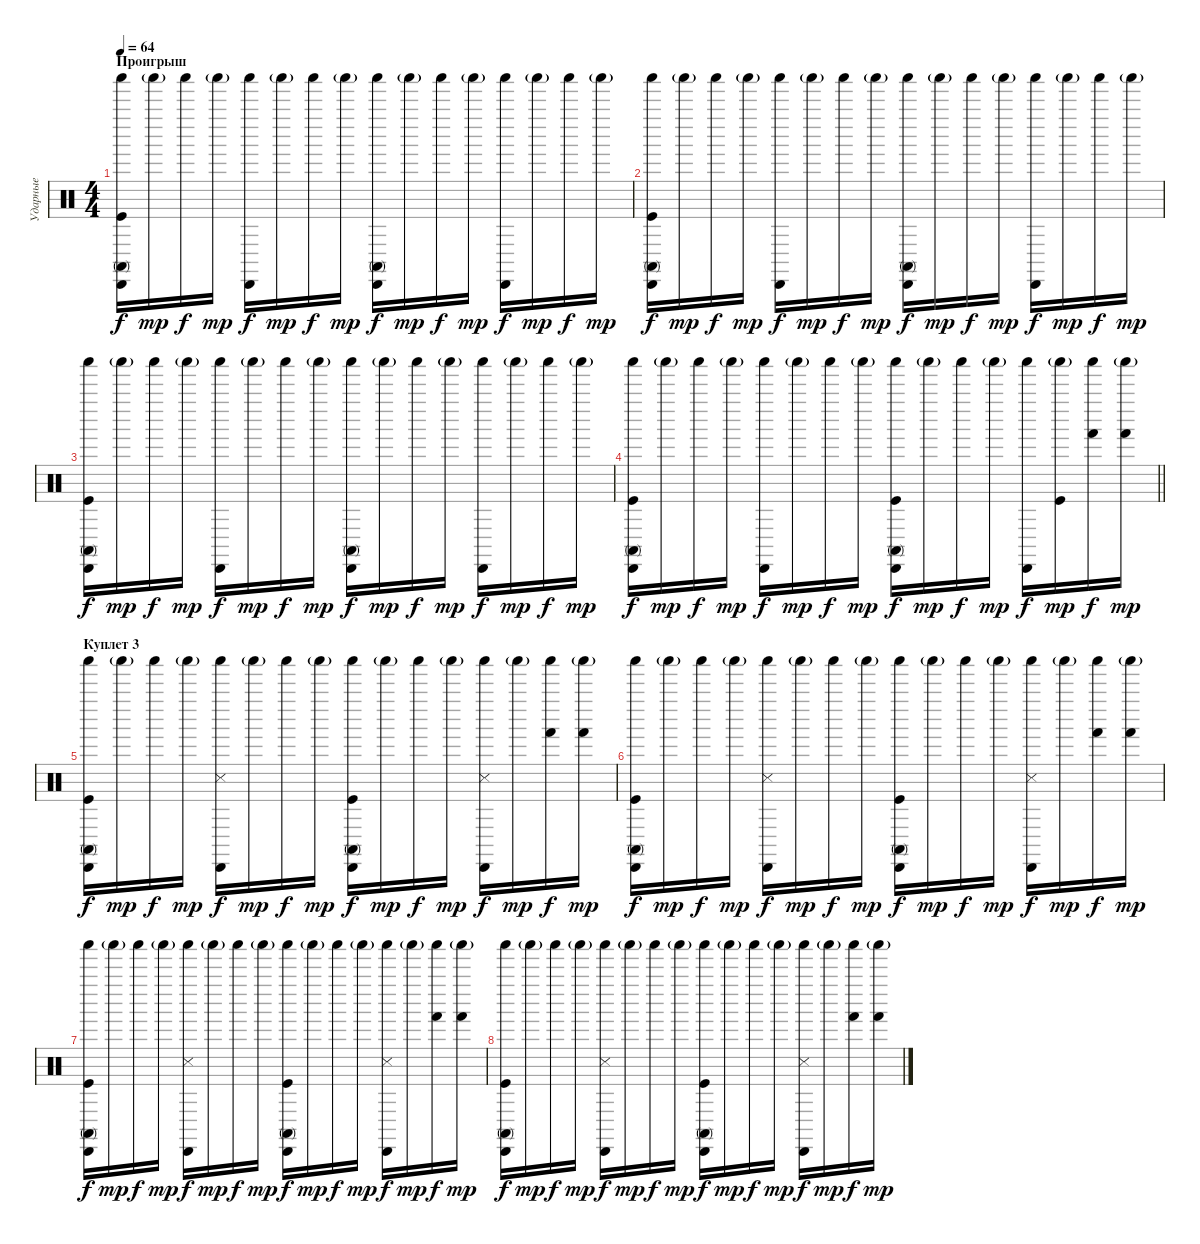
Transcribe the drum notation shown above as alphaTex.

\track ("Ударные" "Ударные") {instrument percussion}
\staff {score}
\articulation defaults
\ts (4 4)
\section ("" "Проигрыш")
\tempo 64
\clef neutral
\ks c
("Kick (hit)" "Conga high (mute)" "Cabasa (hit)" "Shaker (hit)").16{dy f} "Shaker (hit)"{g}.16{dy mp} "Shaker (hit)".16{dy f} "Shaker (hit)"{g}.16{dy mp} ("Cabasa (hit)" "Shaker (hit)").16{dy f} "Shaker (hit)"{g}.16{dy mp} "Shaker (hit)".16{dy f} "Shaker (hit)"{g}.16{dy mp} ("Conga high (mute)" "Cabasa (hit)" "Shaker (hit)").16{dy f} "Shaker (hit)"{g}.16{dy mp} "Shaker (hit)".16{dy f} "Shaker (hit)"{g}.16{dy mp} ("Cabasa (hit)" "Shaker (hit)").16{dy f} "Shaker (hit)"{g}.16{dy mp} "Shaker (hit)".16{dy f} "Shaker (hit)"{g}.16{dy mp} |
("Kick (hit)" "Conga high (mute)" "Cabasa (hit)" "Shaker (hit)").16{dy f} "Shaker (hit)"{g}.16{dy mp} "Shaker (hit)".16{dy f} "Shaker (hit)"{g}.16{dy mp} ("Cabasa (hit)" "Shaker (hit)").16{dy f} "Shaker (hit)"{g}.16{dy mp} "Shaker (hit)".16{dy f} "Shaker (hit)"{g}.16{dy mp} ("Conga high (mute)" "Cabasa (hit)" "Shaker (hit)").16{dy f} "Shaker (hit)"{g}.16{dy mp} "Shaker (hit)".16{dy f} "Shaker (hit)"{g}.16{dy mp} ("Cabasa (hit)" "Shaker (hit)").16{dy f} "Shaker (hit)"{g}.16{dy mp} "Shaker (hit)".16{dy f} "Shaker (hit)"{g}.16{dy mp} |
("Kick (hit)" "Conga high (mute)" "Cabasa (hit)" "Shaker (hit)").16{dy f} "Shaker (hit)"{g}.16{dy mp} "Shaker (hit)".16{dy f} "Shaker (hit)"{g}.16{dy mp} ("Cabasa (hit)" "Shaker (hit)").16{dy f} "Shaker (hit)"{g}.16{dy mp} "Shaker (hit)".16{dy f} "Shaker (hit)"{g}.16{dy mp} ("Conga high (mute)" "Cabasa (hit)" "Shaker (hit)").16{dy f} "Shaker (hit)"{g}.16{dy mp} "Shaker (hit)".16{dy f} "Shaker (hit)"{g}.16{dy mp} ("Cabasa (hit)" "Shaker (hit)").16{dy f} "Shaker (hit)"{g}.16{dy mp} "Shaker (hit)".16{dy f} "Shaker (hit)"{g}.16{dy mp} |
\barLineRight lightlight
("Kick (hit)" "Conga high (mute)" "Cabasa (hit)" "Shaker (hit)").16{dy f} "Shaker (hit)"{g}.16{dy mp} "Shaker (hit)".16{dy f} "Shaker (hit)"{g}.16{dy mp} ("Cabasa (hit)" "Shaker (hit)").16{dy f} "Shaker (hit)"{g}.16{dy mp} "Shaker (hit)".16{dy f} "Shaker (hit)"{g}.16{dy mp} ("Kick (hit)" "Conga high (mute)" "Cabasa (hit)" "Shaker (hit)").16{dy f} "Shaker (hit)"{g}.16{dy mp} "Shaker (hit)".16{dy f} "Shaker (hit)"{g}.16{dy mp} ("Cabasa (hit)" "Shaker (hit)").16{dy f} ("Kick (hit)" "Shaker (hit)"{g}).16{dy mp} ("Hand (hit)" "Shaker (hit)").16{dy f} ("Hand (hit)" "Shaker (hit)"{g}).16{dy mp} |
\section ("" "Куплет 3")
("Kick (hit)" "Conga high (mute)" "Cabasa (hit)" "Shaker (hit)").16{dy f} "Shaker (hit)"{g}.16{dy mp} "Shaker (hit)".16{dy f} "Shaker (hit)"{g}.16{dy mp} ("Snare (side stick) 3" "Cabasa (hit)" "Shaker (hit)").16{dy f} "Shaker (hit)"{g}.16{dy mp} "Shaker (hit)".16{dy f} "Shaker (hit)"{g}.16{dy mp} ("Kick (hit)" "Conga high (mute)" "Cabasa (hit)" "Shaker (hit)").16{dy f} "Shaker (hit)"{g}.16{dy mp} "Shaker (hit)".16{dy f} "Shaker (hit)"{g}.16{dy mp} ("Snare (side stick) 3" "Cabasa (hit)" "Shaker (hit)").16{dy f} "Shaker (hit)"{g}.16{dy mp} ("Hand (hit)" "Shaker (hit)").16{dy f} ("Hand (hit)" "Shaker (hit)"{g}).16{dy mp} |
("Kick (hit)" "Conga high (mute)" "Cabasa (hit)" "Shaker (hit)").16{dy f} "Shaker (hit)"{g}.16{dy mp} "Shaker (hit)".16{dy f} "Shaker (hit)"{g}.16{dy mp} ("Snare (side stick) 3" "Cabasa (hit)" "Shaker (hit)").16{dy f} "Shaker (hit)"{g}.16{dy mp} "Shaker (hit)".16{dy f} "Shaker (hit)"{g}.16{dy mp} ("Kick (hit)" "Conga high (mute)" "Cabasa (hit)" "Shaker (hit)").16{dy f} "Shaker (hit)"{g}.16{dy mp} "Shaker (hit)".16{dy f} "Shaker (hit)"{g}.16{dy mp} ("Snare (side stick) 3" "Cabasa (hit)" "Shaker (hit)").16{dy f} "Shaker (hit)"{g}.16{dy mp} ("Hand (hit)" "Shaker (hit)").16{dy f} ("Hand (hit)" "Shaker (hit)"{g}).16{dy mp} |
("Kick (hit)" "Conga high (mute)" "Cabasa (hit)" "Shaker (hit)").16{dy f} "Shaker (hit)"{g}.16{dy mp} "Shaker (hit)".16{dy f} "Shaker (hit)"{g}.16{dy mp} ("Snare (side stick) 3" "Cabasa (hit)" "Shaker (hit)").16{dy f} "Shaker (hit)"{g}.16{dy mp} "Shaker (hit)".16{dy f} "Shaker (hit)"{g}.16{dy mp} ("Kick (hit)" "Conga high (mute)" "Cabasa (hit)" "Shaker (hit)").16{dy f} "Shaker (hit)"{g}.16{dy mp} "Shaker (hit)".16{dy f} "Shaker (hit)"{g}.16{dy mp} ("Snare (side stick) 3" "Cabasa (hit)" "Shaker (hit)").16{dy f} "Shaker (hit)"{g}.16{dy mp} ("Hand (hit)" "Shaker (hit)").16{dy f} ("Hand (hit)" "Shaker (hit)"{g}).16{dy mp} |
("Kick (hit)" "Conga high (mute)" "Cabasa (hit)" "Shaker (hit)").16{dy f} "Shaker (hit)"{g}.16{dy mp} "Shaker (hit)".16{dy f} "Shaker (hit)"{g}.16{dy mp} ("Snare (side stick) 3" "Cabasa (hit)" "Shaker (hit)").16{dy f} "Shaker (hit)"{g}.16{dy mp} "Shaker (hit)".16{dy f} "Shaker (hit)"{g}.16{dy mp} ("Kick (hit)" "Conga high (mute)" "Cabasa (hit)" "Shaker (hit)").16{dy f} "Shaker (hit)"{g}.16{dy mp} "Shaker (hit)".16{dy f} "Shaker (hit)"{g}.16{dy mp} ("Snare (side stick) 3" "Cabasa (hit)" "Shaker (hit)").16{dy f} "Shaker (hit)"{g}.16{dy mp} ("Hand (hit)" "Shaker (hit)").16{dy f} ("Hand (hit)" "Shaker (hit)"{g}).16{dy mp}
